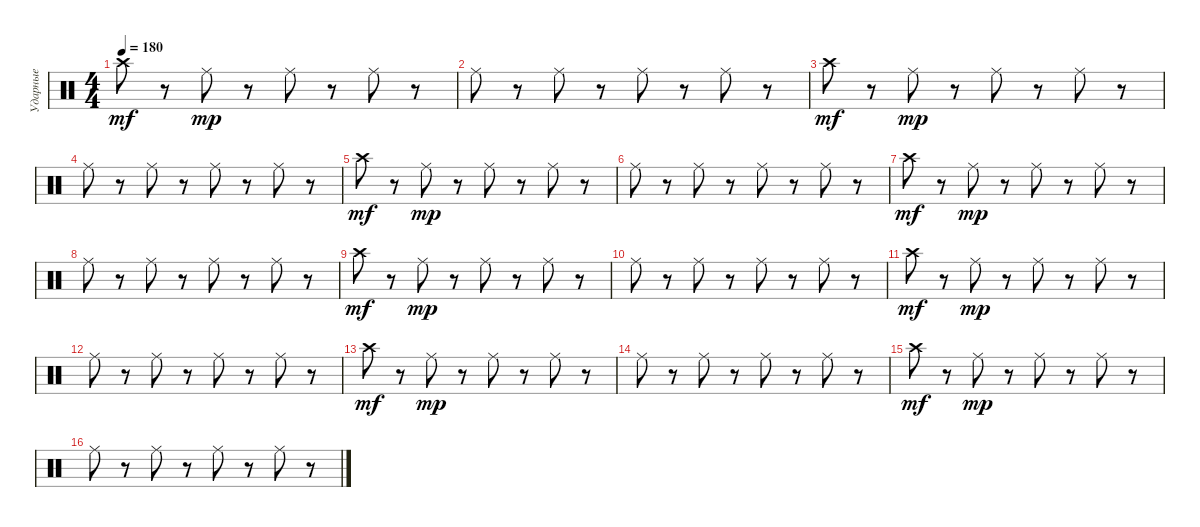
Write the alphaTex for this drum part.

\track ("Ударные" "Ударные") {instrument percussion}
\staff {score}
\articulation defaults
\ts (4 4)
\tempo 180
\clef neutral
\ks c "Crash high (hit)".8{dy mf}
r.8 "Ride (middle)".8{dy mp} r.8 "Ride (middle)".8 r.8 "Ride (middle)".8 r.8 |
"Ride (middle)".8 r.8 "Ride (middle)".8 r.8 "Ride (middle)".8 r.8 "Ride (middle)".8 r.8 |
"Crash high (hit)".8{dy mf} r.8 "Ride (middle)".8{dy mp} r.8 "Ride (middle)".8 r.8 "Ride (middle)".8 r.8 |
"Ride (middle)".8 r.8 "Ride (middle)".8 r.8 "Ride (middle)".8 r.8 "Ride (middle)".8 r.8 |
"Crash high (hit)".8{dy mf} r.8 "Ride (middle)".8{dy mp} r.8 "Ride (middle)".8 r.8 "Ride (middle)".8 r.8 |
"Ride (middle)".8 r.8 "Ride (middle)".8 r.8 "Ride (middle)".8 r.8 "Ride (middle)".8 r.8 |
"Crash high (hit)".8{dy mf} r.8 "Ride (middle)".8{dy mp} r.8 "Ride (middle)".8 r.8 "Ride (middle)".8 r.8 |
"Ride (middle)".8 r.8 "Ride (middle)".8 r.8 "Ride (middle)".8 r.8 "Ride (middle)".8 r.8 |
"Crash high (hit)".8{dy mf} r.8 "Ride (middle)".8{dy mp} r.8 "Ride (middle)".8 r.8 "Ride (middle)".8 r.8 |
"Ride (middle)".8 r.8 "Ride (middle)".8 r.8 "Ride (middle)".8 r.8 "Ride (middle)".8 r.8 |
"Crash high (hit)".8{dy mf} r.8 "Ride (middle)".8{dy mp} r.8 "Ride (middle)".8 r.8 "Ride (middle)".8 r.8 |
"Ride (middle)".8 r.8 "Ride (middle)".8 r.8 "Ride (middle)".8 r.8 "Ride (middle)".8 r.8 |
"Crash high (hit)".8{dy mf} r.8 "Ride (middle)".8{dy mp} r.8 "Ride (middle)".8 r.8 "Ride (middle)".8 r.8 |
"Ride (middle)".8 r.8 "Ride (middle)".8 r.8 "Ride (middle)".8 r.8 "Ride (middle)".8 r.8 |
"Crash high (hit)".8{dy mf} r.8 "Ride (middle)".8{dy mp} r.8 "Ride (middle)".8 r.8 "Ride (middle)".8 r.8 |
"Ride (middle)".8 r.8 "Ride (middle)".8 r.8 "Ride (middle)".8 r.8 "Ride (middle)".8 r.8
